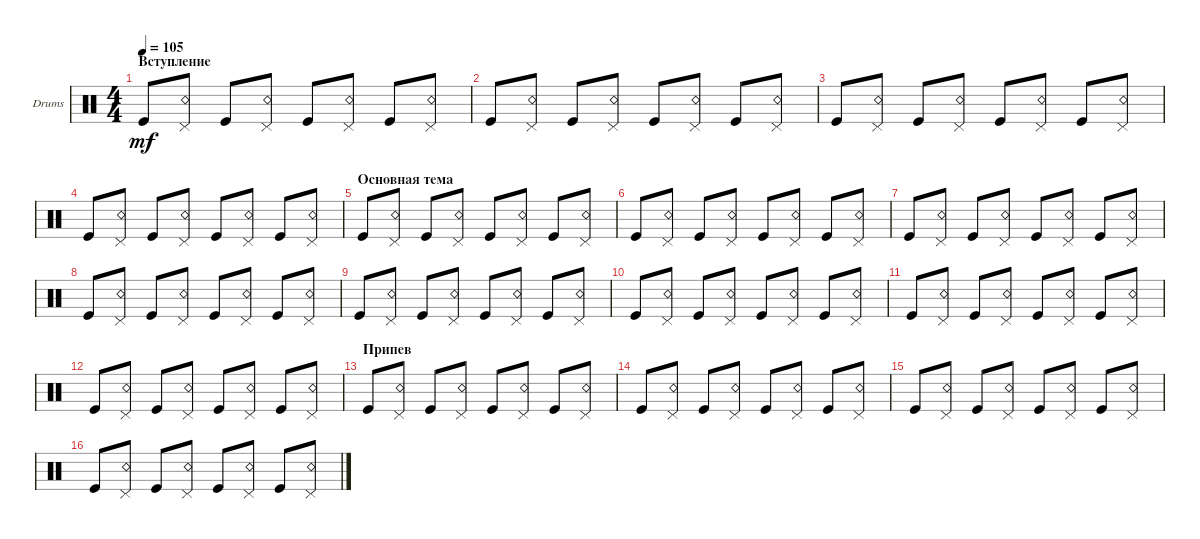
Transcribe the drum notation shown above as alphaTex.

\defaultSystemsLayout 4
\bracketExtendMode groupsimilarinstruments
\firstSystemTrackNameOrientation horizontal
\otherSystemsTrackNameOrientation horizontal
\track ("Drumkit" "Drums") {instrument percussion}
\staff {score}
\articulation defaults
\ts (4 4)
\section ("" "Вступление")
\tempo 105
\clef neutral
\ks c "Kick (hit)".8{dy mf}
("Pedal Hi-Hat (hit)" "Snare (rim shot)").8 "Kick (hit)".8 ("Pedal Hi-Hat (hit)" "Snare (rim shot)").8 "Kick (hit)".8 ("Pedal Hi-Hat (hit)" "Snare (rim shot)").8 "Kick (hit)".8 ("Pedal Hi-Hat (hit)" "Snare (rim shot)").8 |
"Kick (hit)".8 ("Pedal Hi-Hat (hit)" "Snare (rim shot)").8 "Kick (hit)".8 ("Pedal Hi-Hat (hit)" "Snare (rim shot)").8 "Kick (hit)".8 ("Pedal Hi-Hat (hit)" "Snare (rim shot)").8 "Kick (hit)".8 ("Pedal Hi-Hat (hit)" "Snare (rim shot)").8 |
"Kick (hit)".8 ("Pedal Hi-Hat (hit)" "Snare (rim shot)").8 "Kick (hit)".8 ("Pedal Hi-Hat (hit)" "Snare (rim shot)").8 "Kick (hit)".8 ("Pedal Hi-Hat (hit)" "Snare (rim shot)").8 "Kick (hit)".8 ("Pedal Hi-Hat (hit)" "Snare (rim shot)").8 |
"Kick (hit)".8 ("Pedal Hi-Hat (hit)" "Snare (rim shot)").8 "Kick (hit)".8 ("Pedal Hi-Hat (hit)" "Snare (rim shot)").8 "Kick (hit)".8 ("Pedal Hi-Hat (hit)" "Snare (rim shot)").8 "Kick (hit)".8 ("Pedal Hi-Hat (hit)" "Snare (rim shot)").8 |
\section ("" "Основная тема")
"Kick (hit)".8 ("Pedal Hi-Hat (hit)" "Snare (rim shot)").8 "Kick (hit)".8 ("Pedal Hi-Hat (hit)" "Snare (rim shot)").8 "Kick (hit)".8 ("Pedal Hi-Hat (hit)" "Snare (rim shot)").8 "Kick (hit)".8 ("Pedal Hi-Hat (hit)" "Snare (rim shot)").8 |
"Kick (hit)".8 ("Pedal Hi-Hat (hit)" "Snare (rim shot)").8 "Kick (hit)".8 ("Pedal Hi-Hat (hit)" "Snare (rim shot)").8 "Kick (hit)".8 ("Pedal Hi-Hat (hit)" "Snare (rim shot)").8 "Kick (hit)".8 ("Pedal Hi-Hat (hit)" "Snare (rim shot)").8 |
"Kick (hit)".8 ("Pedal Hi-Hat (hit)" "Snare (rim shot)").8 "Kick (hit)".8 ("Pedal Hi-Hat (hit)" "Snare (rim shot)").8 "Kick (hit)".8 ("Pedal Hi-Hat (hit)" "Snare (rim shot)").8 "Kick (hit)".8 ("Pedal Hi-Hat (hit)" "Snare (rim shot)").8 |
"Kick (hit)".8 ("Pedal Hi-Hat (hit)" "Snare (rim shot)").8 "Kick (hit)".8 ("Pedal Hi-Hat (hit)" "Snare (rim shot)").8 "Kick (hit)".8 ("Pedal Hi-Hat (hit)" "Snare (rim shot)").8 "Kick (hit)".8 ("Pedal Hi-Hat (hit)" "Snare (rim shot)").8 |
"Kick (hit)".8 ("Pedal Hi-Hat (hit)" "Snare (rim shot)").8 "Kick (hit)".8 ("Pedal Hi-Hat (hit)" "Snare (rim shot)").8 "Kick (hit)".8 ("Pedal Hi-Hat (hit)" "Snare (rim shot)").8 "Kick (hit)".8 ("Pedal Hi-Hat (hit)" "Snare (rim shot)").8 |
"Kick (hit)".8 ("Pedal Hi-Hat (hit)" "Snare (rim shot)").8 "Kick (hit)".8 ("Pedal Hi-Hat (hit)" "Snare (rim shot)").8 "Kick (hit)".8 ("Pedal Hi-Hat (hit)" "Snare (rim shot)").8 "Kick (hit)".8 ("Pedal Hi-Hat (hit)" "Snare (rim shot)").8 |
"Kick (hit)".8 ("Pedal Hi-Hat (hit)" "Snare (rim shot)").8 "Kick (hit)".8 ("Pedal Hi-Hat (hit)" "Snare (rim shot)").8 "Kick (hit)".8 ("Pedal Hi-Hat (hit)" "Snare (rim shot)").8 "Kick (hit)".8 ("Pedal Hi-Hat (hit)" "Snare (rim shot)").8 |
"Kick (hit)".8 ("Pedal Hi-Hat (hit)" "Snare (rim shot)").8 "Kick (hit)".8 ("Pedal Hi-Hat (hit)" "Snare (rim shot)").8 "Kick (hit)".8 ("Pedal Hi-Hat (hit)" "Snare (rim shot)").8 "Kick (hit)".8 ("Pedal Hi-Hat (hit)" "Snare (rim shot)").8 |
\section ("" "Припев")
"Kick (hit)".8 ("Pedal Hi-Hat (hit)" "Snare (rim shot)").8 "Kick (hit)".8 ("Pedal Hi-Hat (hit)" "Snare (rim shot)").8 "Kick (hit)".8 ("Pedal Hi-Hat (hit)" "Snare (rim shot)").8 "Kick (hit)".8 ("Pedal Hi-Hat (hit)" "Snare (rim shot)").8 |
"Kick (hit)".8 ("Pedal Hi-Hat (hit)" "Snare (rim shot)").8 "Kick (hit)".8 ("Pedal Hi-Hat (hit)" "Snare (rim shot)").8 "Kick (hit)".8 ("Pedal Hi-Hat (hit)" "Snare (rim shot)").8 "Kick (hit)".8 ("Pedal Hi-Hat (hit)" "Snare (rim shot)").8 |
"Kick (hit)".8 ("Pedal Hi-Hat (hit)" "Snare (rim shot)").8 "Kick (hit)".8 ("Pedal Hi-Hat (hit)" "Snare (rim shot)").8 "Kick (hit)".8 ("Pedal Hi-Hat (hit)" "Snare (rim shot)").8 "Kick (hit)".8 ("Pedal Hi-Hat (hit)" "Snare (rim shot)").8 |
"Kick (hit)".8 ("Pedal Hi-Hat (hit)" "Snare (rim shot)").8 "Kick (hit)".8 ("Pedal Hi-Hat (hit)" "Snare (rim shot)").8 "Kick (hit)".8 ("Pedal Hi-Hat (hit)" "Snare (rim shot)").8 "Kick (hit)".8 ("Pedal Hi-Hat (hit)" "Snare (rim shot)").8
